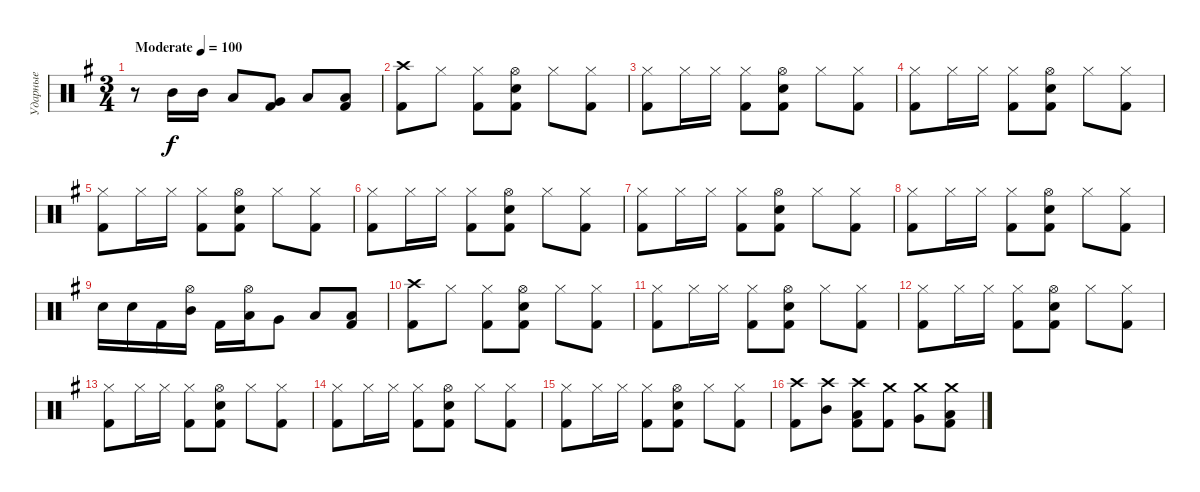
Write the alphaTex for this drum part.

\track ("Ударные" "Ударные") {instrument percussion}
\staff {score}
\articulation defaults
\ts (3 4)
\tempo (100 "Moderate")
\clef neutral
\ks eminor
r.8{dy f} "Mid Tom (hit)".16 "Mid Tom (hit)".16 "Low Tom (hit)".8 ("Very Low Tom (hit)" "Kick (hit) 2").8 "Low Floor Tom (hit)".8 ("Low Floor Tom (hit)" "Kick (hit) 2").8 |
("Kick (hit) 2" "Crash high (hit)").8 "Hi-Hat (closed)".8 ("Kick (hit) 2" "Hi-Hat (closed)").8 ("Snare (hit) 2" "Kick (hit) 2" "Hi-Hat (open)").8 "Hi-Hat (closed)".8 ("Kick (hit) 2" "Hi-Hat (closed)").8 |
("Kick (hit) 2" "Hi-Hat (closed)").8 "Hi-Hat (closed)".16 "Hi-Hat (closed)".16 ("Kick (hit) 2" "Hi-Hat (closed)").8 ("Snare (hit) 2" "Kick (hit) 2" "Hi-Hat (open)").8 "Hi-Hat (closed)".8 ("Kick (hit) 2" "Hi-Hat (closed)").8 |
("Kick (hit) 2" "Hi-Hat (closed)").8 "Hi-Hat (closed)".16 "Hi-Hat (closed)".16 ("Kick (hit) 2" "Hi-Hat (closed)").8 ("Snare (hit) 2" "Kick (hit) 2" "Hi-Hat (open)").8 "Hi-Hat (closed)".8 ("Kick (hit) 2" "Hi-Hat (closed)").8 |
("Kick (hit) 2" "Hi-Hat (closed)").8 "Hi-Hat (closed)".16 "Hi-Hat (closed)".16 ("Kick (hit) 2" "Hi-Hat (closed)").8 ("Snare (hit) 2" "Kick (hit) 2" "Hi-Hat (open)").8 "Hi-Hat (closed)".8 ("Kick (hit) 2" "Hi-Hat (closed)").8 |
("Kick (hit) 2" "Hi-Hat (closed)").8 "Hi-Hat (closed)".16 "Hi-Hat (closed)".16 ("Kick (hit) 2" "Hi-Hat (closed)").8 ("Snare (hit) 2" "Kick (hit) 2" "Hi-Hat (open)").8 "Hi-Hat (closed)".8 ("Kick (hit) 2" "Hi-Hat (closed)").8 |
("Kick (hit) 2" "Hi-Hat (closed)").8 "Hi-Hat (closed)".16 "Hi-Hat (closed)".16 ("Kick (hit) 2" "Hi-Hat (closed)").8 ("Snare (hit) 2" "Kick (hit) 2" "Hi-Hat (open)").8 "Hi-Hat (closed)".8 ("Kick (hit) 2" "Hi-Hat (closed)").8 |
("Kick (hit) 2" "Hi-Hat (closed)").8 "Hi-Hat (closed)".16 "Hi-Hat (closed)".16 ("Kick (hit) 2" "Hi-Hat (closed)").8 ("Snare (hit) 2" "Kick (hit) 2" "Hi-Hat (open)").8 "Hi-Hat (closed)".8 ("Kick (hit) 2" "Hi-Hat (closed)").8 |
"Snare (hit) 2".16 "Snare (hit) 2".16 "Kick (hit) 2".16 ("Mid Tom (hit)" "Hi-Hat (open)").16 "Kick (hit) 2".16 ("Low Tom (hit)" "Hi-Hat (open)").16 "Very Low Tom (hit)".8 "Low Floor Tom (hit)".8 ("Low Floor Tom (hit)" "Kick (hit) 2").8 |
("Kick (hit) 2" "Crash high (hit)").8 "Hi-Hat (closed)".8 ("Kick (hit) 2" "Hi-Hat (closed)").8 ("Snare (hit) 2" "Kick (hit) 2" "Hi-Hat (open)").8 "Hi-Hat (closed)".8 ("Kick (hit) 2" "Hi-Hat (closed)").8 |
("Kick (hit) 2" "Hi-Hat (closed)").8 "Hi-Hat (closed)".16 "Hi-Hat (closed)".16 ("Kick (hit) 2" "Hi-Hat (closed)").8 ("Snare (hit) 2" "Kick (hit) 2" "Hi-Hat (open)").8 "Hi-Hat (closed)".8 ("Kick (hit) 2" "Hi-Hat (closed)").8 |
("Kick (hit) 2" "Hi-Hat (closed)").8 "Hi-Hat (closed)".16 "Hi-Hat (closed)".16 ("Kick (hit) 2" "Hi-Hat (closed)").8 ("Snare (hit) 2" "Kick (hit) 2" "Hi-Hat (open)").8 "Hi-Hat (closed)".8 ("Kick (hit) 2" "Hi-Hat (closed)").8 |
("Kick (hit) 2" "Hi-Hat (closed)").8 "Hi-Hat (closed)".16 "Hi-Hat (closed)".16 ("Kick (hit) 2" "Hi-Hat (closed)").8 ("Snare (hit) 2" "Kick (hit) 2" "Hi-Hat (open)").8 "Hi-Hat (closed)".8 ("Kick (hit) 2" "Hi-Hat (closed)").8 |
("Kick (hit) 2" "Hi-Hat (closed)").8 "Hi-Hat (closed)".16 "Hi-Hat (closed)".16 ("Kick (hit) 2" "Hi-Hat (closed)").8 ("Snare (hit) 2" "Kick (hit) 2" "Hi-Hat (open)").8 "Hi-Hat (closed)".8 ("Kick (hit) 2" "Hi-Hat (closed)").8 |
("Kick (hit) 2" "Hi-Hat (closed)").8 "Hi-Hat (closed)".16 "Hi-Hat (closed)".16 ("Kick (hit) 2" "Hi-Hat (closed)").8 ("Snare (hit) 2" "Kick (hit) 2" "Hi-Hat (open)").8 "Hi-Hat (closed)".8 ("Kick (hit) 2" "Hi-Hat (closed)").8 |
("Kick (hit) 2" "Crash high (hit)").8 ("Mid Tom (hit)" "Crash high (hit)").8 ("Low Tom (hit)" "Kick (hit) 2" "Crash high (hit)").8 ("Kick (hit) 2" "Crash medium (hit)").8 ("Very Low Tom (hit)" "Crash medium (hit)").8 ("Low Floor Tom (hit)" "Kick (hit) 2" "Crash medium (hit)").8
